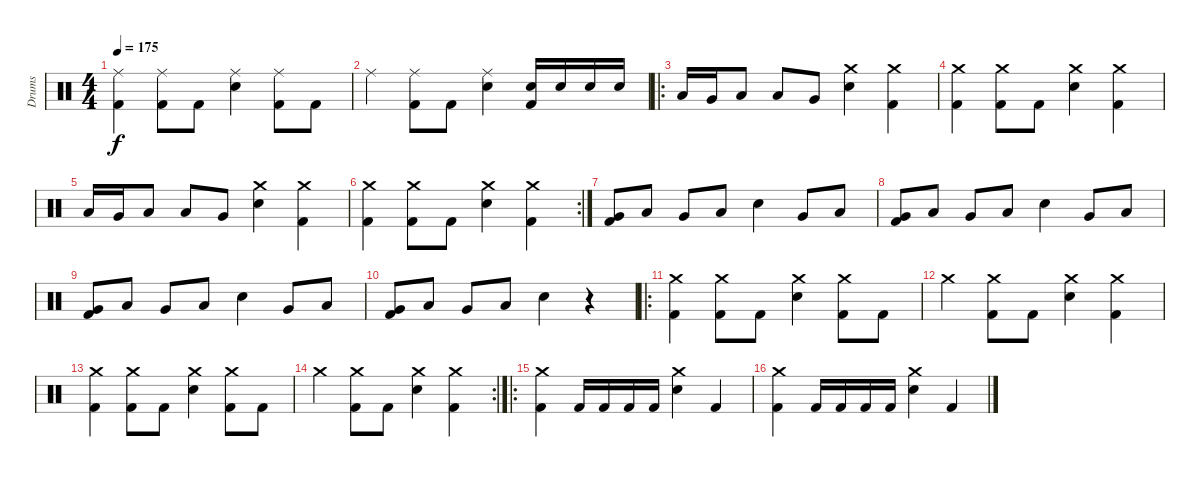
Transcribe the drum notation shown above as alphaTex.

\track ("Drums" "Drums") {instrument percussion}
\staff {score}
\articulation defaults
\ts (4 4)
\tempo 175
\clef neutral
\ks c
("Ride (middle)" "Kick (hit) 2").4{dy f} ("Ride (middle)" "Kick (hit) 2").8 "Kick (hit) 2".8 ("Ride (middle)" "Snare (hit) 2").4 ("Ride (middle)" "Kick (hit) 2").8 "Kick (hit) 2".8 |
"Ride (middle)".4 ("Ride (middle)" "Kick (hit) 2").8 "Kick (hit) 2".8 ("Ride (middle)" "Snare (hit) 2").4 ("Snare (hit) 2" "Kick (hit) 2").16 "Snare (hit) 2".16 "Snare (hit) 2".16 "Snare (hit) 2".16 |
\ro "Low Tom (hit)".16 "Very Low Tom (hit)".16 "Low Floor Tom (hit)".8 "Low Tom (hit)".8 "Very Low Tom (hit)".8
("Crash medium (hit)" "Snare (hit) 2").4 ("Crash medium (hit)" "Kick (hit) 2").4 |
("Crash medium (hit)" "Kick (hit) 2").4 ("Crash medium (hit)" "Kick (hit) 2").8 "Kick (hit) 2".8 ("Crash medium (hit)" "Snare (hit) 2").4 ("Crash medium (hit)" "Kick (hit) 2").4 |
"Low Tom (hit)".16 "Very Low Tom (hit)".16 "Low Floor Tom (hit)".8 "Low Tom (hit)".8 "Very Low Tom (hit)".8 ("Crash medium (hit)" "Snare (hit) 2").4 ("Crash medium (hit)" "Kick (hit) 2").4 |
\rc 2
("Crash medium (hit)" "Kick (hit) 2").4 ("Crash medium (hit)" "Kick (hit) 2").8 "Kick (hit) 2".8 ("Crash medium (hit)" "Snare (hit) 2").4 ("Crash medium (hit)" "Kick (hit) 2").4 |
("Very Low Tom (hit)" "Kick (hit) 2").8 "Low Tom (hit)".8 "Very Low Tom (hit)".8 "Low Tom (hit)".8 "Snare (hit) 2".4 "Very Low Tom (hit)".8 "Low Tom (hit)".8 |
("Very Low Tom (hit)" "Kick (hit) 2").8 "Low Tom (hit)".8 "Very Low Tom (hit)".8 "Low Tom (hit)".8 "Snare (hit) 2".4 "Very Low Tom (hit)".8 "Low Tom (hit)".8 |
("Very Low Tom (hit)" "Kick (hit) 2").8 "Low Tom (hit)".8 "Very Low Tom (hit)".8 "Low Tom (hit)".8 "Snare (hit) 2".4 "Very Low Tom (hit)".8 "Low Tom (hit)".8 |
("Very Low Tom (hit)" "Kick (hit) 2").8 "Low Tom (hit)".8 "Very Low Tom (hit)".8 "Low Tom (hit)".8 "Snare (hit) 2".4 r.4 |
\ro
("Crash medium (hit)" "Kick (hit) 2").4 ("Crash medium (hit)" "Kick (hit) 2").8 "Kick (hit) 2".8 ("Crash medium (hit)" "Snare (hit) 2").4 ("Crash medium (hit)" "Kick (hit) 2").8 "Kick (hit) 2".8 |
"Crash medium (hit)".4 ("Crash medium (hit)" "Kick (hit) 2").8 "Kick (hit) 2".8 ("Crash medium (hit)" "Snare (hit) 2").4 ("Crash medium (hit)" "Kick (hit) 2").4 |
("Crash medium (hit)" "Kick (hit) 2").4 ("Crash medium (hit)" "Kick (hit) 2").8 "Kick (hit) 2".8 ("Crash medium (hit)" "Snare (hit) 2").4 ("Crash medium (hit)" "Kick (hit) 2").8 "Kick (hit) 2".8 |
\rc 2 "Crash medium (hit)".4
("Crash medium (hit)" "Kick (hit) 2").8 "Kick (hit) 2".8 ("Crash medium (hit)" "Snare (hit) 2").4 ("Crash medium (hit)" "Kick (hit) 2").4 |
\ro
("Crash medium (hit)" "Kick (hit) 2").4 "Kick (hit) 2".16 "Kick (hit) 2".16 "Kick (hit) 2".16 "Kick (hit) 2".16 ("Crash medium (hit)" "Snare (hit) 2").4 "Kick (hit) 2".4 |
("Crash medium (hit)" "Kick (hit) 2").4 "Kick (hit) 2".16 "Kick (hit) 2".16 "Kick (hit) 2".16 "Kick (hit) 2".16 ("Crash medium (hit)" "Snare (hit) 2").4 "Kick (hit) 2".4
